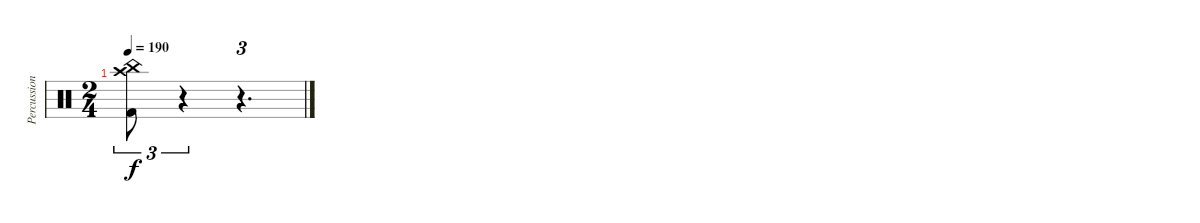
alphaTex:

\track ("Percussion" "Percussion") {instrument percussion}
\staff {score}
\articulation defaults
\ts (2 4)
\tempo 190
\clef neutral
\ks c
("China (hit)" "Crash high (hit)" "Kick (hit) 2").8{tu (3 2) dy f} r.4{tu (3 2)} r.4{d tu (3 2)}
